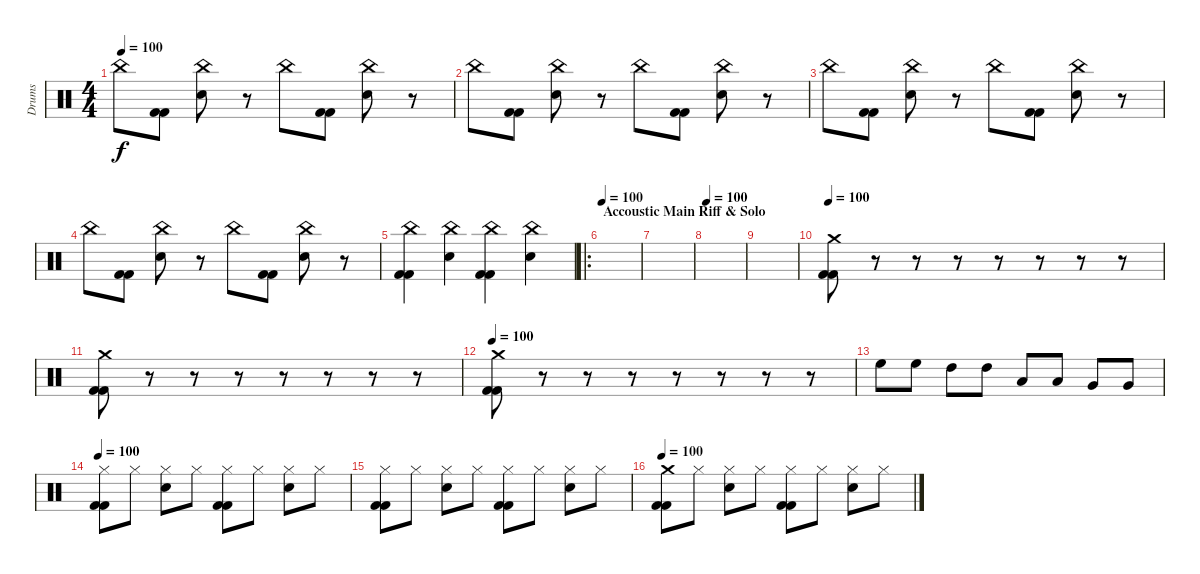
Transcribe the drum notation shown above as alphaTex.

\track ("Drums" "Drums") {instrument percussion}
\staff {score}
\articulation defaults
\ts (4 4)
\tempo 100
\clef neutral
\ks c "China (hit)".8{dy f}
("Kick (hit) 2" "Kick (hit) 2").8 ("Electric Snare (hit)" "China (hit)").8 r.8 "China (hit)".8 ("Kick (hit) 2" "Kick (hit) 2").8 ("Electric Snare (hit)" "China (hit)").8 r.8 |
"China (hit)".8 ("Kick (hit) 2" "Kick (hit) 2").8 ("Electric Snare (hit)" "China (hit)").8 r.8 "China (hit)".8 ("Kick (hit) 2" "Kick (hit) 2").8 ("Electric Snare (hit)" "China (hit)").8 r.8 |
"China (hit)".8 ("Kick (hit) 2" "Kick (hit) 2").8 ("Electric Snare (hit)" "China (hit)").8 r.8 "China (hit)".8 ("Kick (hit) 2" "Kick (hit) 2").8 ("Electric Snare (hit)" "China (hit)").8 r.8 |
"China (hit)".8 ("Kick (hit) 2" "Kick (hit) 2").8 ("Electric Snare (hit)" "China (hit)").8 r.8 "China (hit)".8 ("Kick (hit) 2" "Kick (hit) 2").8 ("Electric Snare (hit)" "China (hit)").8 r.8 |
("China (hit)" "Kick (hit) 2" "Kick (hit) 2").4 ("Electric Snare (hit)" "China (hit)").4 ("Kick (hit) 2" "Kick (hit) 2" "China (hit)").4 ("China (hit)" "Electric Snare (hit)").4 |
\ro
\section ("" "Accoustic Main Riff & Solo")
\tempo 100
|
|
\tempo 100
|
|
\tempo 100
("Crash medium (hit)" "Kick (hit) 2" "Kick (hit) 2").8 r.8 r.8 r.8 r.8 r.8 r.8 r.8 |
("Crash medium (hit)" "Kick (hit) 2" "Kick (hit) 2").8 r.8 r.8 r.8 r.8 r.8 r.8 r.8 |
\tempo 100
("Crash medium (hit)" "Kick (hit) 2" "Kick (hit) 2").8 r.8 r.8 r.8 r.8 r.8 r.8 r.8 |
"High Floor Tom (hit)".8 "High Floor Tom (hit)".8 "High Tom (hit)".8 "High Tom (hit)".8 "Low Tom (hit)".8 "Low Tom (hit)".8 "Very Low Tom (hit)".8 "Very Low Tom (hit)".8 |
\tempo 100
("Hi-Hat (closed)" "Kick (hit) 2" "Kick (hit) 2").8 "Hi-Hat (closed)".8 ("Electric Snare (hit)" "Hi-Hat (closed)").8 "Hi-Hat (closed)".8 ("Hi-Hat (closed)" "Kick (hit) 2" "Kick (hit) 2").8 "Hi-Hat (closed)".8 ("Hi-Hat (closed)" "Electric Snare (hit)").8 "Hi-Hat (closed)".8 |
("Hi-Hat (closed)" "Kick (hit) 2" "Kick (hit) 2").8 "Hi-Hat (closed)".8 ("Electric Snare (hit)" "Hi-Hat (closed)").8 "Hi-Hat (closed)".8 ("Hi-Hat (closed)" "Kick (hit) 2" "Kick (hit) 2").8 "Hi-Hat (closed)".8 ("Hi-Hat (closed)" "Electric Snare (hit)").8 "Hi-Hat (closed)".8 |
\tempo 100
("Crash medium (hit)" "Kick (hit) 2" "Kick (hit) 2").8 "Hi-Hat (closed)".8 ("Electric Snare (hit)" "Hi-Hat (closed)").8 "Hi-Hat (closed)".8 ("Hi-Hat (closed)" "Kick (hit) 2" "Kick (hit) 2").8 "Hi-Hat (closed)".8 ("Hi-Hat (closed)" "Electric Snare (hit)").8 "Hi-Hat (closed)".8
